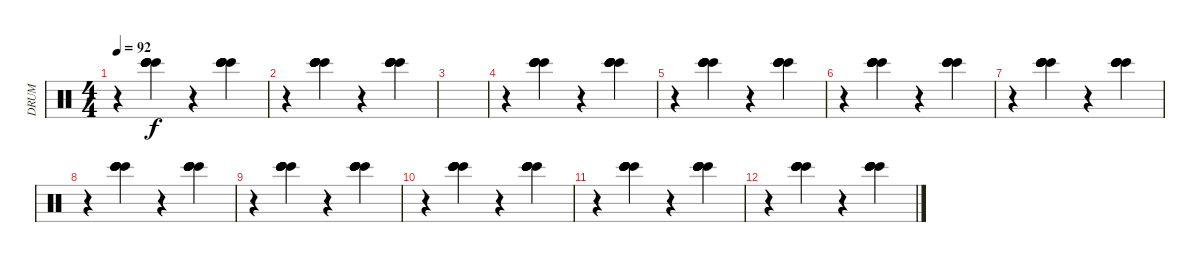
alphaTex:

\track ("DRUM" "DRUM") {instrument percussion}
\staff {score}
\articulation defaults
\ts (4 4)
\tempo 92
\clef neutral
\ks c
r.4{dy f volume 16} ("Bongo High (hit)" "Bongo High (hit)" "Bongo High (hit)" "Bongo High (hit)" "Bongo High (hit)").4{volume 16} r.4{volume 16} ("Bongo High (hit)" "Bongo High (hit)" "Bongo High (hit)" "Bongo High (hit)" "Bongo High (hit)").4{volume 16} |
r.4{volume 16} ("Bongo High (hit)" "Bongo High (hit)" "Bongo High (hit)" "Bongo High (hit)" "Bongo High (hit)").4{volume 16} r.4{volume 16} ("Bongo High (hit)" "Bongo High (hit)" "Bongo High (hit)" "Bongo High (hit)" "Bongo High (hit)").4{volume 16} |
|
r.4{volume 16} ("Bongo High (hit)" "Bongo High (hit)" "Bongo High (hit)" "Bongo High (hit)" "Bongo High (hit)").4{volume 16} r.4{volume 16} ("Bongo High (hit)" "Bongo High (hit)" "Bongo High (hit)" "Bongo High (hit)" "Bongo High (hit)").4{volume 16} |
r.4{volume 16} ("Bongo High (hit)" "Bongo High (hit)" "Bongo High (hit)" "Bongo High (hit)" "Bongo High (hit)").4{volume 16} r.4{volume 16} ("Bongo High (hit)" "Bongo High (hit)" "Bongo High (hit)" "Bongo High (hit)" "Bongo High (hit)").4{volume 16} |
r.4{volume 16} ("Bongo High (hit)" "Bongo High (hit)" "Bongo High (hit)" "Bongo High (hit)" "Bongo High (hit)").4{volume 16} r.4{volume 16} ("Bongo High (hit)" "Bongo High (hit)" "Bongo High (hit)" "Bongo High (hit)" "Bongo High (hit)").4{volume 16} |
r.4{volume 16} ("Bongo High (hit)" "Bongo High (hit)" "Bongo High (hit)" "Bongo High (hit)" "Bongo High (hit)").4{volume 16} r.4{volume 16} ("Bongo High (hit)" "Bongo High (hit)" "Bongo High (hit)" "Bongo High (hit)" "Bongo High (hit)").4{volume 16} |
r.4{volume 16} ("Bongo High (hit)" "Bongo High (hit)" "Bongo High (hit)" "Bongo High (hit)" "Bongo High (hit)").4{volume 16} r.4{volume 16} ("Bongo High (hit)" "Bongo High (hit)" "Bongo High (hit)" "Bongo High (hit)" "Bongo High (hit)").4{volume 16} |
r.4{volume 16} ("Bongo High (hit)" "Bongo High (hit)" "Bongo High (hit)" "Bongo High (hit)" "Bongo High (hit)").4{volume 16} r.4{volume 16} ("Bongo High (hit)" "Bongo High (hit)" "Bongo High (hit)" "Bongo High (hit)" "Bongo High (hit)").4{volume 16} |
r.4{volume 16} ("Bongo High (hit)" "Bongo High (hit)" "Bongo High (hit)" "Bongo High (hit)" "Bongo High (hit)").4{volume 16} r.4{volume 16} ("Bongo High (hit)" "Bongo High (hit)" "Bongo High (hit)" "Bongo High (hit)" "Bongo High (hit)").4{volume 16} |
r.4{volume 16} ("Bongo High (hit)" "Bongo High (hit)" "Bongo High (hit)" "Bongo High (hit)" "Bongo High (hit)").4{volume 16} r.4{volume 16} ("Bongo High (hit)" "Bongo High (hit)" "Bongo High (hit)" "Bongo High (hit)" "Bongo High (hit)").4{volume 16} |
r.4{volume 16} ("Bongo High (hit)" "Bongo High (hit)" "Bongo High (hit)" "Bongo High (hit)" "Bongo High (hit)").4{volume 16} r.4{volume 16} ("Bongo High (hit)" "Bongo High (hit)" "Bongo High (hit)" "Bongo High (hit)" "Bongo High (hit)").4{volume 16}
